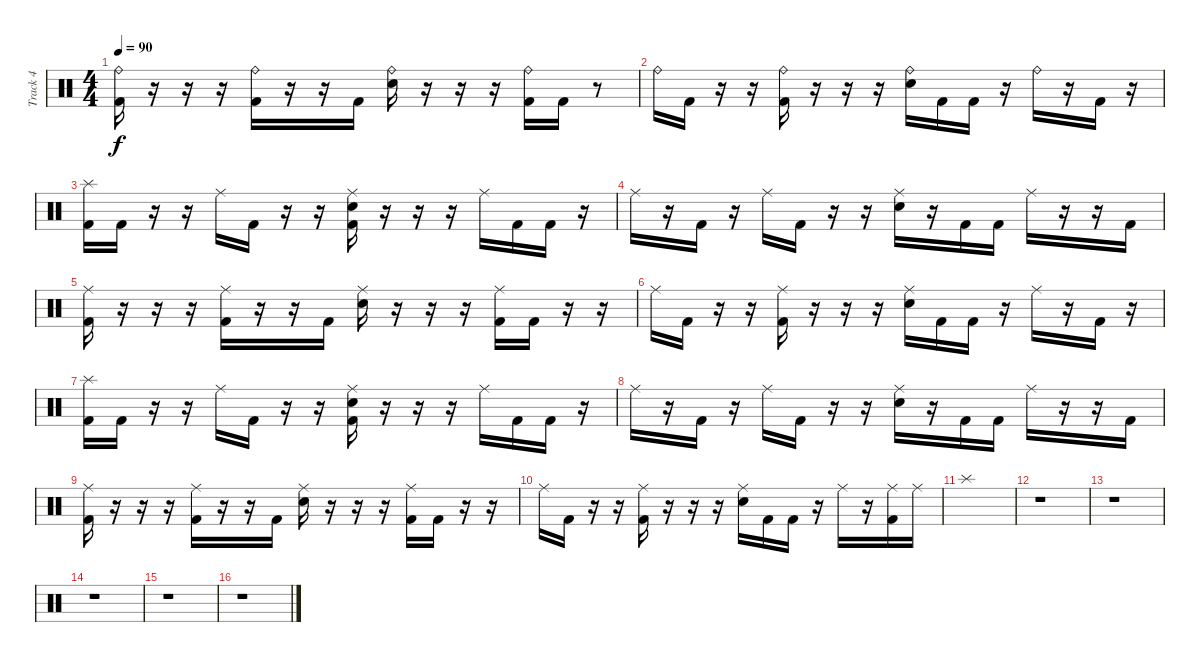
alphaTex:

\track ("Track 4" "Track 4") {instrument percussion}
\staff {score}
\articulation defaults
\ts (4 4)
\tempo 90
\clef neutral
\ks c
("Ride (bell)" "Kick (hit) 2").16{dy f} r.16 r.16 r.16 ("Ride (bell)" "Kick (hit) 2").16 r.16 r.16 "Kick (hit) 2".16 ("Ride (bell)" "Electric Snare (hit)").16 r.16 r.16 r.16 ("Ride (bell)" "Kick (hit) 2").16 "Kick (hit) 2".16 r.8 |
"Ride (bell)".16 "Kick (hit) 2".16 r.16 r.16 ("Ride (bell)" "Kick (hit) 2").16 r.16 r.16 r.16 ("Ride (bell)" "Electric Snare (hit)").16 "Kick (hit) 2".16 "Kick (hit) 2".16 r.16 "Ride (bell)".16 r.16 "Kick (hit) 2".16 r.16 |
("Splash (hit)" "Kick (hit) 2").16 "Kick (hit) 2".16 r.16 r.16 "Ride (middle)".16 "Kick (hit) 2".16 r.16 r.16 ("Ride (middle)" "Electric Snare (hit)" "Kick (hit) 2").16 r.16 r.16 r.16 "Ride (middle)".16 "Kick (hit) 2".16 "Kick (hit) 2".16 r.16 |
"Ride (middle)".16 r.16 "Kick (hit) 2".16 r.16 "Ride (middle)".16 "Kick (hit) 2".16 r.16 r.16 ("Ride (middle)" "Electric Snare (hit)").16 r.16 "Kick (hit) 2".16 "Kick (hit) 2".16 "Ride (middle)".16 r.16 r.16 "Kick (hit) 2".16 |
("Ride (middle)" "Kick (hit) 2").16 r.16 r.16 r.16 ("Ride (middle)" "Kick (hit) 2").16 r.16 r.16 "Kick (hit) 2".16 ("Ride (middle)" "Electric Snare (hit)").16 r.16 r.16 r.16 ("Ride (middle)" "Kick (hit) 2").16 "Kick (hit) 2".16 r.16 r.16 |
"Ride (middle)".16 "Kick (hit) 2".16 r.16 r.16 ("Ride (middle)" "Kick (hit) 2").16 r.16 r.16 r.16 ("Ride (middle)" "Electric Snare (hit)").16 "Kick (hit) 2".16 "Kick (hit) 2".16 r.16 "Ride (middle)".16 r.16 "Kick (hit) 2".16 r.16 |
("Splash (hit)" "Kick (hit) 2").16 "Kick (hit) 2".16 r.16 r.16 "Ride (middle)".16 "Kick (hit) 2".16 r.16 r.16 ("Ride (middle)" "Electric Snare (hit)" "Kick (hit) 2").16 r.16 r.16 r.16 "Ride (middle)".16 "Kick (hit) 2".16 "Kick (hit) 2".16 r.16 |
"Ride (middle)".16 r.16 "Kick (hit) 2".16 r.16 "Ride (middle)".16 "Kick (hit) 2".16 r.16 r.16 ("Ride (middle)" "Electric Snare (hit)").16 r.16 "Kick (hit) 2".16 "Kick (hit) 2".16 "Ride (middle)".16 r.16 r.16 "Kick (hit) 2".16 |
("Ride (middle)" "Kick (hit) 2").16 r.16 r.16 r.16 ("Ride (middle)" "Kick (hit) 2").16 r.16 r.16 "Kick (hit) 2".16 ("Ride (middle)" "Electric Snare (hit)").16 r.16 r.16 r.16 ("Ride (middle)" "Kick (hit) 2").16 "Kick (hit) 2".16 r.16 r.16 |
"Ride (middle)".16 "Kick (hit) 2".16 r.16 r.16 ("Ride (middle)" "Kick (hit) 2").16 r.16 r.16 r.16 ("Ride (middle)" "Electric Snare (hit)").16 "Kick (hit) 2".16 "Kick (hit) 2".16 r.16 "Ride (middle)".16 r.16 ("Ride (middle)" "Kick (hit) 2").16 "Ride (middle)".16 |
"Splash (hit)".1 |
r.1 |
r.1 |
r.1 |
r.1 |
r.1
